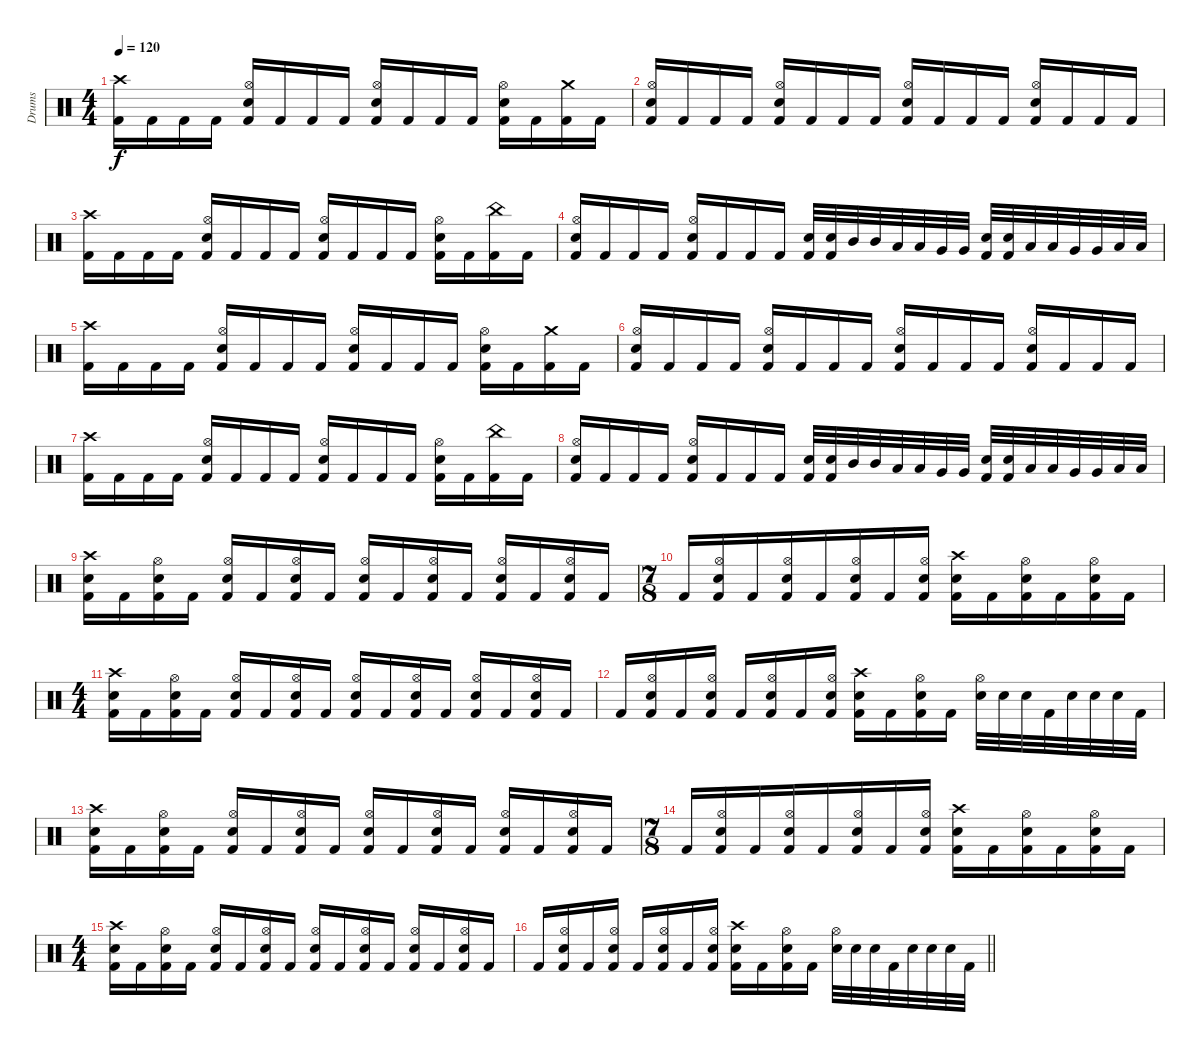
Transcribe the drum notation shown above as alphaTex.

\track ("Drums" "Drums") {instrument percussion}
\staff
\articulation defaults
\ts (4 4)
\tempo 120
\clef neutral
\ks c
("Crash high (hit)" "Kick (hit) 2").16{dy f} "Kick (hit) 2".16 "Kick (hit) 2".16 "Kick (hit) 2".16 ("Hi-Hat (open)" "Electric Snare (hit)" "Kick (hit) 2").16 "Kick (hit) 2".16 "Kick (hit) 2".16 "Kick (hit) 2".16 ("Hi-Hat (open)" "Electric Snare (hit)" "Kick (hit) 2").16 "Kick (hit) 2".16 "Kick (hit) 2".16 "Kick (hit) 2".16 ("Hi-Hat (open)" "Electric Snare (hit)" "Kick (hit) 2").16 "Kick (hit) 2".16 ("Crash medium (hit)" "Kick (hit) 2").16 "Kick (hit) 2".16 |
("Hi-Hat (open)" "Electric Snare (hit)" "Kick (hit) 2").16 "Kick (hit) 2".16 "Kick (hit) 2".16 "Kick (hit) 2".16 ("Hi-Hat (open)" "Electric Snare (hit)" "Kick (hit) 2").16 "Kick (hit) 2".16 "Kick (hit) 2".16 "Kick (hit) 2".16 ("Hi-Hat (open)" "Electric Snare (hit)" "Kick (hit) 2").16 "Kick (hit) 2".16 "Kick (hit) 2".16 "Kick (hit) 2".16 ("Hi-Hat (open)" "Electric Snare (hit)" "Kick (hit) 2").16 "Kick (hit) 2".16 "Kick (hit) 2".16 "Kick (hit) 2".16 |
("Crash high (hit)" "Kick (hit) 2").16 "Kick (hit) 2".16 "Kick (hit) 2".16 "Kick (hit) 2".16 ("Hi-Hat (open)" "Electric Snare (hit)" "Kick (hit) 2").16 "Kick (hit) 2".16 "Kick (hit) 2".16 "Kick (hit) 2".16 ("Hi-Hat (open)" "Electric Snare (hit)" "Kick (hit) 2").16 "Kick (hit) 2".16 "Kick (hit) 2".16 "Kick (hit) 2".16 ("Hi-Hat (open)" "Electric Snare (hit)" "Kick (hit) 2").16 "Kick (hit) 2".16 ("China (hit)" "Kick (hit) 2").16 "Kick (hit) 2".16 |
("Hi-Hat (open)" "Electric Snare (hit)" "Kick (hit) 2").16 "Kick (hit) 2".16 "Kick (hit) 2".16 "Kick (hit) 2".16 ("Hi-Hat (open)" "Electric Snare (hit)" "Kick (hit) 2").16 "Kick (hit) 2".16 "Kick (hit) 2".16 "Kick (hit) 2".16 ("Electric Snare (hit)" "Kick (hit) 2").32 ("Electric Snare (hit)" "Kick (hit) 2").32 "Mid Tom (hit)".32 "Mid Tom (hit)".32 "Low Tom (hit)".32 "Low Tom (hit)".32 "Very Low Tom (hit)".32 "Very Low Tom (hit)".32 ("Electric Snare (hit)" "Kick (hit) 2").32 ("Electric Snare (hit)" "Kick (hit) 2").32 "Low Tom (hit)".32 "Low Tom (hit)".32 "Very Low Tom (hit)".32 "Very Low Tom (hit)".32 "Low Floor Tom (hit)".32 "Low Floor Tom (hit)".32 |
("Crash high (hit)" "Kick (hit) 2").16 "Kick (hit) 2".16 "Kick (hit) 2".16 "Kick (hit) 2".16 ("Hi-Hat (open)" "Electric Snare (hit)" "Kick (hit) 2").16 "Kick (hit) 2".16 "Kick (hit) 2".16 "Kick (hit) 2".16 ("Hi-Hat (open)" "Electric Snare (hit)" "Kick (hit) 2").16 "Kick (hit) 2".16 "Kick (hit) 2".16 "Kick (hit) 2".16 ("Hi-Hat (open)" "Electric Snare (hit)" "Kick (hit) 2").16 "Kick (hit) 2".16 ("Crash medium (hit)" "Kick (hit) 2").16 "Kick (hit) 2".16 |
("Hi-Hat (open)" "Electric Snare (hit)" "Kick (hit) 2").16 "Kick (hit) 2".16 "Kick (hit) 2".16 "Kick (hit) 2".16 ("Hi-Hat (open)" "Electric Snare (hit)" "Kick (hit) 2").16 "Kick (hit) 2".16 "Kick (hit) 2".16 "Kick (hit) 2".16 ("Hi-Hat (open)" "Electric Snare (hit)" "Kick (hit) 2").16 "Kick (hit) 2".16 "Kick (hit) 2".16 "Kick (hit) 2".16 ("Hi-Hat (open)" "Electric Snare (hit)" "Kick (hit) 2").16 "Kick (hit) 2".16 "Kick (hit) 2".16 "Kick (hit) 2".16 |
("Crash high (hit)" "Kick (hit) 2").16 "Kick (hit) 2".16 "Kick (hit) 2".16 "Kick (hit) 2".16 ("Hi-Hat (open)" "Electric Snare (hit)" "Kick (hit) 2").16 "Kick (hit) 2".16 "Kick (hit) 2".16 "Kick (hit) 2".16 ("Hi-Hat (open)" "Electric Snare (hit)" "Kick (hit) 2").16 "Kick (hit) 2".16 "Kick (hit) 2".16 "Kick (hit) 2".16 ("Hi-Hat (open)" "Electric Snare (hit)" "Kick (hit) 2").16 "Kick (hit) 2".16 ("China (hit)" "Kick (hit) 2").16 "Kick (hit) 2".16 |
("Hi-Hat (open)" "Electric Snare (hit)" "Kick (hit) 2").16 "Kick (hit) 2".16 "Kick (hit) 2".16 "Kick (hit) 2".16 ("Hi-Hat (open)" "Electric Snare (hit)" "Kick (hit) 2").16 "Kick (hit) 2".16 "Kick (hit) 2".16 "Kick (hit) 2".16 ("Electric Snare (hit)" "Kick (hit) 2").32 ("Electric Snare (hit)" "Kick (hit) 2").32 "Mid Tom (hit)".32 "Mid Tom (hit)".32 "Low Tom (hit)".32 "Low Tom (hit)".32 "Very Low Tom (hit)".32 "Very Low Tom (hit)".32 ("Electric Snare (hit)" "Kick (hit) 2").32 ("Electric Snare (hit)" "Kick (hit) 2").32 "Low Tom (hit)".32 "Low Tom (hit)".32 "Very Low Tom (hit)".32 "Very Low Tom (hit)".32 "Low Floor Tom (hit)".32 "Low Floor Tom (hit)".32 |
("Crash high (hit)" "Electric Snare (hit)" "Kick (hit) 2").16 "Kick (hit) 2".16 ("Hi-Hat (open)" "Electric Snare (hit)" "Kick (hit) 2").16 "Kick (hit) 2".16 ("Hi-Hat (open)" "Electric Snare (hit)" "Kick (hit) 2").16 "Kick (hit) 2".16 ("Hi-Hat (open)" "Electric Snare (hit)" "Kick (hit) 2").16 "Kick (hit) 2".16 ("Hi-Hat (open)" "Electric Snare (hit)" "Kick (hit) 2").16 "Kick (hit) 2".16 ("Hi-Hat (open)" "Electric Snare (hit)" "Kick (hit) 2").16 "Kick (hit) 2".16 ("Hi-Hat (open)" "Electric Snare (hit)" "Kick (hit) 2").16 "Kick (hit) 2".16 ("Hi-Hat (open)" "Electric Snare (hit)" "Kick (hit) 2").16 "Kick (hit) 2".16 |
\ts (7 8)
"Kick (hit) 2".16 ("Hi-Hat (open)" "Electric Snare (hit)" "Kick (hit) 2").16 "Kick (hit) 2".16 ("Hi-Hat (open)" "Electric Snare (hit)" "Kick (hit) 2").16 "Kick (hit) 2".16 ("Hi-Hat (open)" "Electric Snare (hit)" "Kick (hit) 2").16 "Kick (hit) 2".16 ("Hi-Hat (open)" "Electric Snare (hit)" "Kick (hit) 2").16 ("Crash high (hit)" "Electric Snare (hit)" "Kick (hit) 2").16 "Kick (hit) 2".16 ("Hi-Hat (open)" "Electric Snare (hit)" "Kick (hit) 2").16 "Kick (hit) 2".16 ("Hi-Hat (open)" "Electric Snare (hit)" "Kick (hit) 2").16 "Kick (hit) 2".16 |
\ts (4 4)
("Crash high (hit)" "Electric Snare (hit)" "Kick (hit) 2").16 "Kick (hit) 2".16 ("Hi-Hat (open)" "Electric Snare (hit)" "Kick (hit) 2").16 "Kick (hit) 2".16 ("Hi-Hat (open)" "Electric Snare (hit)" "Kick (hit) 2").16 "Kick (hit) 2".16 ("Hi-Hat (open)" "Electric Snare (hit)" "Kick (hit) 2").16 "Kick (hit) 2".16 ("Hi-Hat (open)" "Electric Snare (hit)" "Kick (hit) 2").16 "Kick (hit) 2".16 ("Hi-Hat (open)" "Electric Snare (hit)" "Kick (hit) 2").16 "Kick (hit) 2".16 ("Hi-Hat (open)" "Electric Snare (hit)" "Kick (hit) 2").16 "Kick (hit) 2".16 ("Hi-Hat (open)" "Electric Snare (hit)" "Kick (hit) 2").16 "Kick (hit) 2".16 |
"Kick (hit) 2".16 ("Hi-Hat (open)" "Electric Snare (hit)" "Kick (hit) 2").16 "Kick (hit) 2".16 ("Hi-Hat (open)" "Electric Snare (hit)" "Kick (hit) 2").16 "Kick (hit) 2".16 ("Hi-Hat (open)" "Electric Snare (hit)" "Kick (hit) 2").16 "Kick (hit) 2".16 ("Hi-Hat (open)" "Electric Snare (hit)" "Kick (hit) 2").16 ("Crash high (hit)" "Electric Snare (hit)" "Kick (hit) 2").16 "Kick (hit) 2".16 ("Hi-Hat (open)" "Electric Snare (hit)" "Kick (hit) 2").16 "Kick (hit) 2".16 ("Hi-Hat (open)" "Electric Snare (hit)").32 "Electric Snare (hit)".32 "Electric Snare (hit)".32 "Kick (hit) 2".32 "Electric Snare (hit)".32 "Electric Snare (hit)".32 "Electric Snare (hit)".32 "Kick (hit) 2".32 |
("Crash high (hit)" "Electric Snare (hit)" "Kick (hit) 2").16 "Kick (hit) 2".16 ("Hi-Hat (open)" "Electric Snare (hit)" "Kick (hit) 2").16 "Kick (hit) 2".16 ("Hi-Hat (open)" "Electric Snare (hit)" "Kick (hit) 2").16 "Kick (hit) 2".16 ("Hi-Hat (open)" "Electric Snare (hit)" "Kick (hit) 2").16 "Kick (hit) 2".16 ("Hi-Hat (open)" "Electric Snare (hit)" "Kick (hit) 2").16 "Kick (hit) 2".16 ("Hi-Hat (open)" "Electric Snare (hit)" "Kick (hit) 2").16 "Kick (hit) 2".16 ("Hi-Hat (open)" "Electric Snare (hit)" "Kick (hit) 2").16 "Kick (hit) 2".16 ("Hi-Hat (open)" "Electric Snare (hit)" "Kick (hit) 2").16 "Kick (hit) 2".16 |
\ts (7 8)
"Kick (hit) 2".16 ("Hi-Hat (open)" "Electric Snare (hit)" "Kick (hit) 2").16 "Kick (hit) 2".16 ("Hi-Hat (open)" "Electric Snare (hit)" "Kick (hit) 2").16 "Kick (hit) 2".16 ("Hi-Hat (open)" "Electric Snare (hit)" "Kick (hit) 2").16 "Kick (hit) 2".16 ("Hi-Hat (open)" "Electric Snare (hit)" "Kick (hit) 2").16 ("Crash high (hit)" "Electric Snare (hit)" "Kick (hit) 2").16 "Kick (hit) 2".16 ("Hi-Hat (open)" "Electric Snare (hit)" "Kick (hit) 2").16 "Kick (hit) 2".16 ("Hi-Hat (open)" "Electric Snare (hit)" "Kick (hit) 2").16 "Kick (hit) 2".16 |
\ts (4 4)
("Crash high (hit)" "Electric Snare (hit)" "Kick (hit) 2").16 "Kick (hit) 2".16 ("Hi-Hat (open)" "Electric Snare (hit)" "Kick (hit) 2").16 "Kick (hit) 2".16 ("Hi-Hat (open)" "Electric Snare (hit)" "Kick (hit) 2").16 "Kick (hit) 2".16 ("Hi-Hat (open)" "Electric Snare (hit)" "Kick (hit) 2").16 "Kick (hit) 2".16 ("Hi-Hat (open)" "Electric Snare (hit)" "Kick (hit) 2").16 "Kick (hit) 2".16 ("Hi-Hat (open)" "Electric Snare (hit)" "Kick (hit) 2").16 "Kick (hit) 2".16 ("Hi-Hat (open)" "Electric Snare (hit)" "Kick (hit) 2").16 "Kick (hit) 2".16 ("Hi-Hat (open)" "Electric Snare (hit)" "Kick (hit) 2").16 "Kick (hit) 2".16 |
\barLineRight lightlight "Kick (hit) 2".16
("Hi-Hat (open)" "Electric Snare (hit)" "Kick (hit) 2").16 "Kick (hit) 2".16 ("Hi-Hat (open)" "Electric Snare (hit)" "Kick (hit) 2").16 "Kick (hit) 2".16 ("Hi-Hat (open)" "Electric Snare (hit)" "Kick (hit) 2").16 "Kick (hit) 2".16 ("Hi-Hat (open)" "Electric Snare (hit)" "Kick (hit) 2").16 ("Crash high (hit)" "Electric Snare (hit)" "Kick (hit) 2").16 "Kick (hit) 2".16 ("Hi-Hat (open)" "Electric Snare (hit)" "Kick (hit) 2").16 "Kick (hit) 2".16 ("Hi-Hat (open)" "Electric Snare (hit)").32 "Electric Snare (hit)".32 "Electric Snare (hit)".32 "Kick (hit) 2".32 "Electric Snare (hit)".32 "Electric Snare (hit)".32 "Electric Snare (hit)".32 "Kick (hit) 2".32
